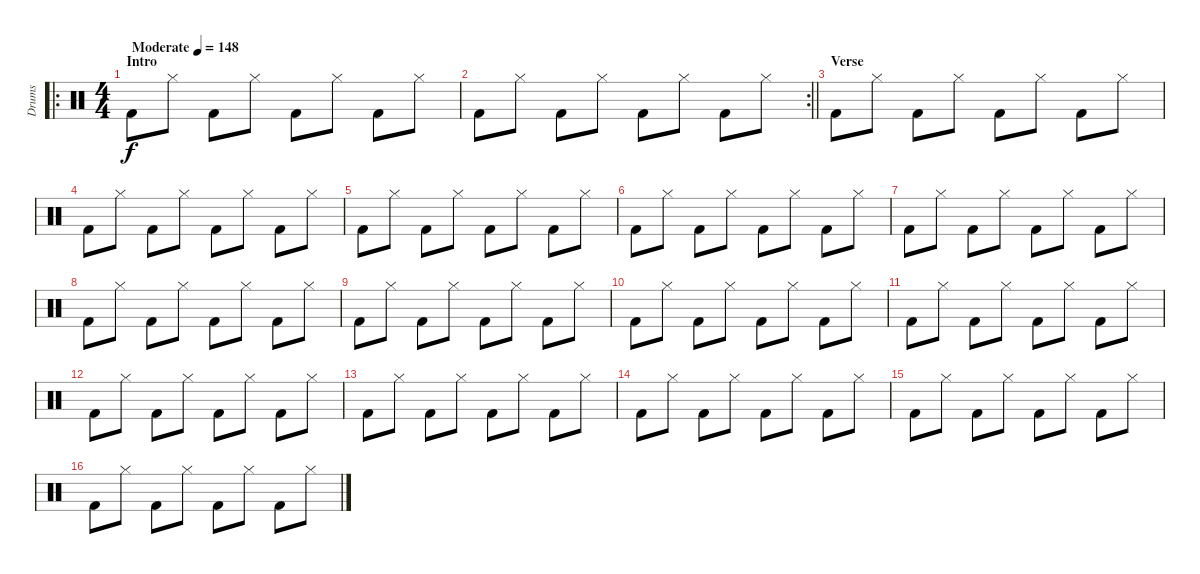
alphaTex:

\track ("Drums" "Drums") {instrument percussion}
\staff {score}
\articulation defaults
\ro
\ts (4 4)
\section ("" "Intro")
\tempo (148 "Moderate")
\clef neutral
\ks c "Kick (hit) 2".8{dy f} "Hi-Hat (closed)".8 "Kick (hit) 2".8 "Hi-Hat (closed)".8 "Kick (hit) 2".8 "Hi-Hat (closed)".8 "Kick (hit) 2".8 "Hi-Hat (closed)".8
|
\rc 2
\barLineRight lightlight "Kick (hit) 2".8 "Hi-Hat (closed)".8 "Kick (hit) 2".8 "Hi-Hat (closed)".8 "Kick (hit) 2".8 "Hi-Hat (closed)".8 "Kick (hit) 2".8 "Hi-Hat (closed)".8
|
\section ("" "Verse")
"Kick (hit) 2".8 "Hi-Hat (closed)".8 "Kick (hit) 2".8 "Hi-Hat (closed)".8 "Kick (hit) 2".8 "Hi-Hat (closed)".8 "Kick (hit) 2".8 "Hi-Hat (closed)".8 |
"Kick (hit) 2".8 "Hi-Hat (closed)".8 "Kick (hit) 2".8 "Hi-Hat (closed)".8 "Kick (hit) 2".8 "Hi-Hat (closed)".8 "Kick (hit) 2".8 "Hi-Hat (closed)".8 |
"Kick (hit) 2".8 "Hi-Hat (closed)".8 "Kick (hit) 2".8 "Hi-Hat (closed)".8 "Kick (hit) 2".8 "Hi-Hat (closed)".8 "Kick (hit) 2".8 "Hi-Hat (closed)".8 |
"Kick (hit) 2".8 "Hi-Hat (closed)".8 "Kick (hit) 2".8 "Hi-Hat (closed)".8 "Kick (hit) 2".8 "Hi-Hat (closed)".8 "Kick (hit) 2".8 "Hi-Hat (closed)".8 |
"Kick (hit) 2".8 "Hi-Hat (closed)".8 "Kick (hit) 2".8 "Hi-Hat (closed)".8 "Kick (hit) 2".8 "Hi-Hat (closed)".8 "Kick (hit) 2".8 "Hi-Hat (closed)".8 |
"Kick (hit) 2".8 "Hi-Hat (closed)".8 "Kick (hit) 2".8 "Hi-Hat (closed)".8 "Kick (hit) 2".8 "Hi-Hat (closed)".8 "Kick (hit) 2".8 "Hi-Hat (closed)".8 |
"Kick (hit) 2".8 "Hi-Hat (closed)".8 "Kick (hit) 2".8 "Hi-Hat (closed)".8 "Kick (hit) 2".8 "Hi-Hat (closed)".8 "Kick (hit) 2".8 "Hi-Hat (closed)".8 |
"Kick (hit) 2".8 "Hi-Hat (closed)".8 "Kick (hit) 2".8 "Hi-Hat (closed)".8 "Kick (hit) 2".8 "Hi-Hat (closed)".8 "Kick (hit) 2".8 "Hi-Hat (closed)".8 |
"Kick (hit) 2".8 "Hi-Hat (closed)".8 "Kick (hit) 2".8 "Hi-Hat (closed)".8 "Kick (hit) 2".8 "Hi-Hat (closed)".8 "Kick (hit) 2".8 "Hi-Hat (closed)".8 |
"Kick (hit) 2".8 "Hi-Hat (closed)".8 "Kick (hit) 2".8 "Hi-Hat (closed)".8 "Kick (hit) 2".8 "Hi-Hat (closed)".8 "Kick (hit) 2".8 "Hi-Hat (closed)".8 |
"Kick (hit) 2".8 "Hi-Hat (closed)".8 "Kick (hit) 2".8 "Hi-Hat (closed)".8 "Kick (hit) 2".8 "Hi-Hat (closed)".8 "Kick (hit) 2".8 "Hi-Hat (closed)".8 |
"Kick (hit) 2".8 "Hi-Hat (closed)".8 "Kick (hit) 2".8 "Hi-Hat (closed)".8 "Kick (hit) 2".8 "Hi-Hat (closed)".8 "Kick (hit) 2".8 "Hi-Hat (closed)".8 |
"Kick (hit) 2".8 "Hi-Hat (closed)".8 "Kick (hit) 2".8 "Hi-Hat (closed)".8 "Kick (hit) 2".8 "Hi-Hat (closed)".8 "Kick (hit) 2".8 "Hi-Hat (closed)".8 |
"Kick (hit) 2".8 "Hi-Hat (closed)".8 "Kick (hit) 2".8 "Hi-Hat (closed)".8 "Kick (hit) 2".8 "Hi-Hat (closed)".8 "Kick (hit) 2".8 "Hi-Hat (closed)".8
